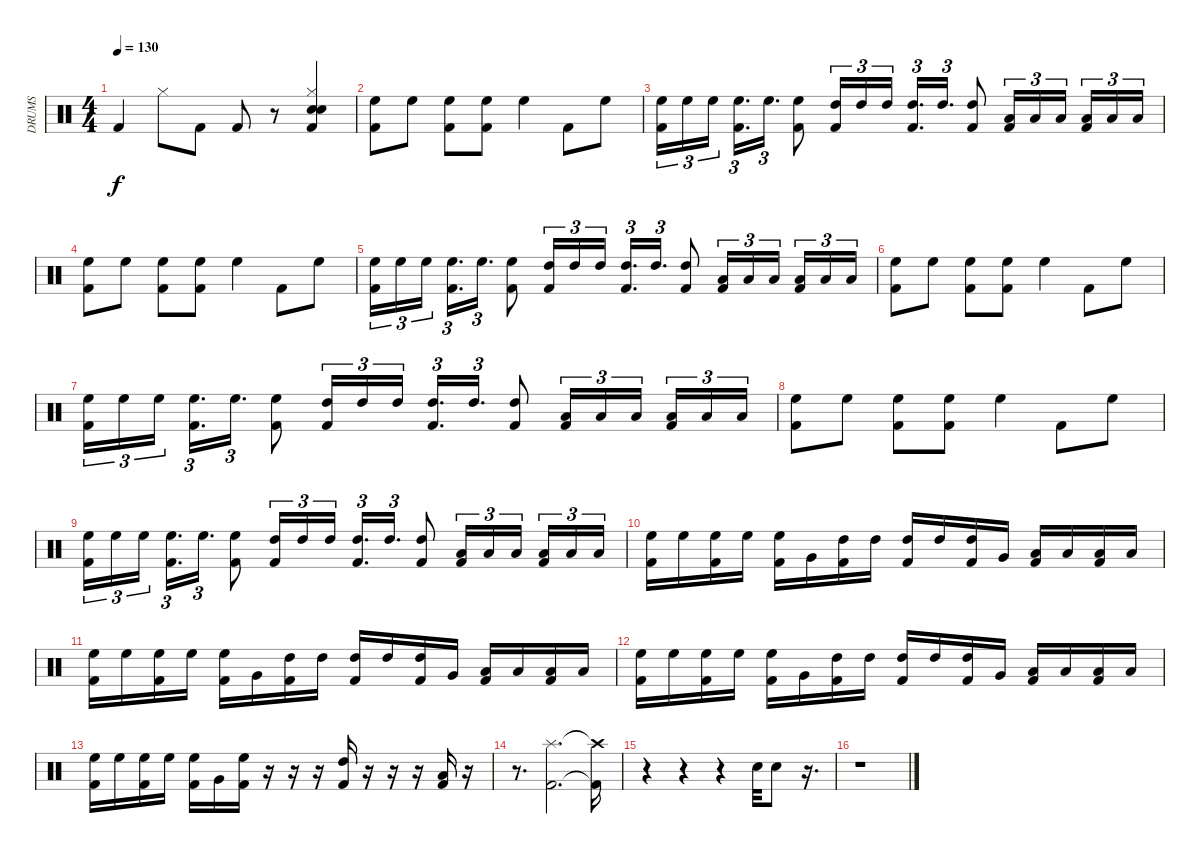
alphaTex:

\track ("DRUMS" "DRUMS") {instrument percussion}
\staff {score}
\articulation defaults
\ts (4 4)
\tempo 130
\clef neutral
\ks c "Kick (hit) 2".4{dy f} "Hi-Hat (closed)".8 "Kick (hit) 2".8 "Kick (hit) 2".8
r.8 ("Hi-Hat (closed)" "Electric Snare (hit)" "Snare (hit) 2" "Kick (hit) 2").4 |
("High Floor Tom (hit)" "Kick (hit) 2").8 "High Floor Tom (hit)".8 ("High Floor Tom (hit)" "Kick (hit) 2").8 ("High Floor Tom (hit)" "Kick (hit) 2").8 "High Floor Tom (hit)".4 "Kick (hit) 2".8 "High Floor Tom (hit)".8 |
("High Floor Tom (hit)" "Kick (hit) 2").16{tu (3 2) balance 1} "High Floor Tom (hit)".16{tu (3 2)} "High Floor Tom (hit)".16{tu (3 2)} ("High Floor Tom (hit)" "Kick (hit) 2").16{d tu (3 2)} "High Floor Tom (hit)".16{d tu (3 2)} ("High Floor Tom (hit)" "Kick (hit) 2").8 ("High Tom (hit)" "Kick (hit) 2").16{tu (3 2) balance 8} "High Tom (hit)".16{tu (3 2)} "High Tom (hit)".16{tu (3 2)} ("High Tom (hit)" "Kick (hit) 2").16{d tu (3 2)} "High Tom (hit)".16{d tu (3 2)} ("High Tom (hit)" "Kick (hit) 2").8 ("Low Tom (hit)" "Kick (hit) 2").16{tu (3 2) balance 16} "Low Tom (hit)".16{tu (3 2)} "Low Tom (hit)".16{tu (3 2)} ("Low Tom (hit)" "Kick (hit) 2").16{tu (3 2)} "Low Tom (hit)".16{tu (3 2)} "Low Tom (hit)".16{tu (3 2)} |
("High Floor Tom (hit)" "Kick (hit) 2").8{balance 8} "High Floor Tom (hit)".8 ("High Floor Tom (hit)" "Kick (hit) 2").8 ("High Floor Tom (hit)" "Kick (hit) 2").8 "High Floor Tom (hit)".4 "Kick (hit) 2".8 "High Floor Tom (hit)".8 |
("High Floor Tom (hit)" "Kick (hit) 2").16{tu (3 2) balance 1} "High Floor Tom (hit)".16{tu (3 2)} "High Floor Tom (hit)".16{tu (3 2)} ("High Floor Tom (hit)" "Kick (hit) 2").16{d tu (3 2)} "High Floor Tom (hit)".16{d tu (3 2)} ("High Floor Tom (hit)" "Kick (hit) 2").8 ("High Tom (hit)" "Kick (hit) 2").16{tu (3 2) balance 8} "High Tom (hit)".16{tu (3 2)} "High Tom (hit)".16{tu (3 2)} ("High Tom (hit)" "Kick (hit) 2").16{d tu (3 2)} "High Tom (hit)".16{d tu (3 2)} ("High Tom (hit)" "Kick (hit) 2").8 ("Low Tom (hit)" "Kick (hit) 2").16{tu (3 2) balance 16} "Low Tom (hit)".16{tu (3 2)} "Low Tom (hit)".16{tu (3 2)} ("Low Tom (hit)" "Kick (hit) 2").16{tu (3 2)} "Low Tom (hit)".16{tu (3 2)} "Low Tom (hit)".16{tu (3 2)} |
("High Floor Tom (hit)" "Kick (hit) 2").8{balance 8} "High Floor Tom (hit)".8 ("High Floor Tom (hit)" "Kick (hit) 2").8 ("High Floor Tom (hit)" "Kick (hit) 2").8 "High Floor Tom (hit)".4 "Kick (hit) 2".8 "High Floor Tom (hit)".8 |
("High Floor Tom (hit)" "Kick (hit) 2").16{tu (3 2) balance 1} "High Floor Tom (hit)".16{tu (3 2)} "High Floor Tom (hit)".16{tu (3 2)} ("High Floor Tom (hit)" "Kick (hit) 2").16{d tu (3 2)} "High Floor Tom (hit)".16{d tu (3 2)} ("High Floor Tom (hit)" "Kick (hit) 2").8 ("High Tom (hit)" "Kick (hit) 2").16{tu (3 2) balance 8} "High Tom (hit)".16{tu (3 2)} "High Tom (hit)".16{tu (3 2)} ("High Tom (hit)" "Kick (hit) 2").16{d tu (3 2)} "High Tom (hit)".16{d tu (3 2)} ("High Tom (hit)" "Kick (hit) 2").8 ("Low Tom (hit)" "Kick (hit) 2").16{tu (3 2) balance 16} "Low Tom (hit)".16{tu (3 2)} "Low Tom (hit)".16{tu (3 2)} ("Low Tom (hit)" "Kick (hit) 2").16{tu (3 2)} "Low Tom (hit)".16{tu (3 2)} "Low Tom (hit)".16{tu (3 2)} |
("High Floor Tom (hit)" "Kick (hit) 2").8{balance 8} "High Floor Tom (hit)".8 ("High Floor Tom (hit)" "Kick (hit) 2").8 ("High Floor Tom (hit)" "Kick (hit) 2").8 "High Floor Tom (hit)".4 "Kick (hit) 2".8 "High Floor Tom (hit)".8 |
("High Floor Tom (hit)" "Kick (hit) 2").16{tu (3 2) balance 1} "High Floor Tom (hit)".16{tu (3 2)} "High Floor Tom (hit)".16{tu (3 2)} ("High Floor Tom (hit)" "Kick (hit) 2").16{d tu (3 2)} "High Floor Tom (hit)".16{d tu (3 2)} ("High Floor Tom (hit)" "Kick (hit) 2").8 ("High Tom (hit)" "Kick (hit) 2").16{tu (3 2) balance 8} "High Tom (hit)".16{tu (3 2)} "High Tom (hit)".16{tu (3 2)} ("High Tom (hit)" "Kick (hit) 2").16{d tu (3 2)} "High Tom (hit)".16{d tu (3 2)} ("High Tom (hit)" "Kick (hit) 2").8 ("Low Tom (hit)" "Kick (hit) 2").16{tu (3 2) balance 16} "Low Tom (hit)".16{tu (3 2)} "Low Tom (hit)".16{tu (3 2)} ("Low Tom (hit)" "Kick (hit) 2").16{tu (3 2)} "Low Tom (hit)".16{tu (3 2)} "Low Tom (hit)".16{tu (3 2)} |
("High Floor Tom (hit)" "Kick (hit) 2").16{balance 1} "High Floor Tom (hit)".16 ("High Floor Tom (hit)" "Kick (hit) 2").16 "High Floor Tom (hit)".16 ("High Floor Tom (hit)" "Kick (hit) 2").16 "Very Low Tom (hit)".16 ("High Tom (hit)" "Kick (hit) 2").16{balance 8} "High Tom (hit)".16 ("High Tom (hit)" "Kick (hit) 2").16 "High Tom (hit)".16 ("High Tom (hit)" "Kick (hit) 2").16 "Very Low Tom (hit)".16 ("Low Tom (hit)" "Kick (hit) 2").16{balance 16} "Low Tom (hit)".16 ("Low Tom (hit)" "Kick (hit) 2").16 "Low Tom (hit)".16 |
("High Floor Tom (hit)" "Kick (hit) 2").16{balance 1} "High Floor Tom (hit)".16 ("High Floor Tom (hit)" "Kick (hit) 2").16 "High Floor Tom (hit)".16 ("High Floor Tom (hit)" "Kick (hit) 2").16 "Very Low Tom (hit)".16 ("High Tom (hit)" "Kick (hit) 2").16{balance 8} "High Tom (hit)".16 ("High Tom (hit)" "Kick (hit) 2").16 "High Tom (hit)".16 ("High Tom (hit)" "Kick (hit) 2").16 "Very Low Tom (hit)".16 ("Low Tom (hit)" "Kick (hit) 2").16{balance 16} "Low Tom (hit)".16 ("Low Tom (hit)" "Kick (hit) 2").16 "Low Tom (hit)".16 |
("High Floor Tom (hit)" "Kick (hit) 2").16{balance 1} "High Floor Tom (hit)".16 ("High Floor Tom (hit)" "Kick (hit) 2").16 "High Floor Tom (hit)".16 ("High Floor Tom (hit)" "Kick (hit) 2").16 "Very Low Tom (hit)".16 ("High Tom (hit)" "Kick (hit) 2").16{balance 8} "High Tom (hit)".16 ("High Tom (hit)" "Kick (hit) 2").16 "High Tom (hit)".16 ("High Tom (hit)" "Kick (hit) 2").16 "Very Low Tom (hit)".16 ("Low Tom (hit)" "Kick (hit) 2").16{balance 16} "Low Tom (hit)".16 ("Low Tom (hit)" "Kick (hit) 2").16 "Low Tom (hit)".16 |
("High Floor Tom (hit)" "Kick (hit) 2").16{balance 0} "High Floor Tom (hit)".16 ("High Floor Tom (hit)" "Kick (hit) 2").16 "High Floor Tom (hit)".16 ("High Floor Tom (hit)" "Kick (hit) 2").16 "Very Low Tom (hit)".16 ("High Floor Tom (hit)" "Kick (hit) 2").16 r.16 r.16 r.16 ("High Tom (hit)" "Kick (hit) 2").16 r.16 r.16 r.16 ("Low Tom (hit)" "Kick (hit) 2").16{balance 8} r.16 |
r.8{d} ("Splash (hit)" "Kick (hit) 2").2{d balance 16} ("Crash high (hit)"{t} "Kick (hit) 2"{t}).16 |
r.4 r.4 r.4 "Electric Snare (hit)".32 "Electric Snare (hit)".8 r.16{d} |
r.1
